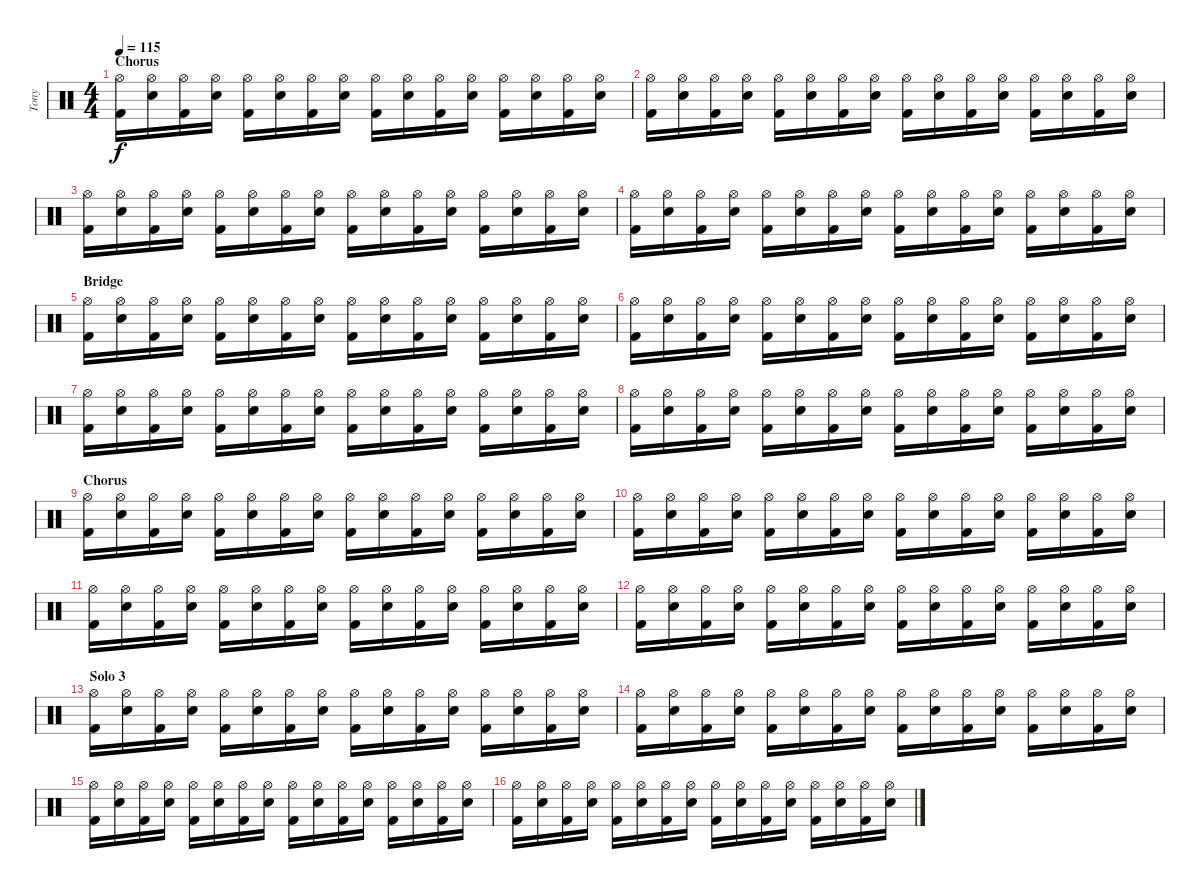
\track ("Tony" "Tony") {instrument percussion}
\staff {score}
\articulation defaults
\ts (4 4)
\section ("" "Chorus")
\tempo 115
\clef neutral
\ks c
("Kick (hit) 2" "Hi-Hat (open)").16{dy f} ("Electric Snare (hit)" "Hi-Hat (open)").16 ("Kick (hit) 2" "Hi-Hat (open)").16 ("Electric Snare (hit)" "Hi-Hat (open)").16 ("Kick (hit) 2" "Hi-Hat (open)").16 ("Electric Snare (hit)" "Hi-Hat (open)").16 ("Kick (hit) 2" "Hi-Hat (open)").16 ("Electric Snare (hit)" "Hi-Hat (open)").16 ("Kick (hit) 2" "Hi-Hat (open)").16 ("Electric Snare (hit)" "Hi-Hat (open)").16 ("Kick (hit) 2" "Hi-Hat (open)").16 ("Electric Snare (hit)" "Hi-Hat (open)").16 ("Kick (hit) 2" "Hi-Hat (open)").16 ("Electric Snare (hit)" "Hi-Hat (open)").16 ("Kick (hit) 2" "Hi-Hat (open)").16 ("Electric Snare (hit)" "Hi-Hat (open)").16 |
("Kick (hit) 2" "Hi-Hat (open)").16 ("Electric Snare (hit)" "Hi-Hat (open)").16 ("Kick (hit) 2" "Hi-Hat (open)").16 ("Electric Snare (hit)" "Hi-Hat (open)").16 ("Kick (hit) 2" "Hi-Hat (open)").16 ("Electric Snare (hit)" "Hi-Hat (open)").16 ("Kick (hit) 2" "Hi-Hat (open)").16 ("Electric Snare (hit)" "Hi-Hat (open)").16 ("Kick (hit) 2" "Hi-Hat (open)").16 ("Electric Snare (hit)" "Hi-Hat (open)").16 ("Kick (hit) 2" "Hi-Hat (open)").16 ("Electric Snare (hit)" "Hi-Hat (open)").16 ("Kick (hit) 2" "Hi-Hat (open)").16 ("Electric Snare (hit)" "Hi-Hat (open)").16 ("Kick (hit) 2" "Hi-Hat (open)").16 ("Electric Snare (hit)" "Hi-Hat (open)").16 |
("Kick (hit) 2" "Hi-Hat (open)").16 ("Electric Snare (hit)" "Hi-Hat (open)").16 ("Kick (hit) 2" "Hi-Hat (open)").16 ("Electric Snare (hit)" "Hi-Hat (open)").16 ("Kick (hit) 2" "Hi-Hat (open)").16 ("Electric Snare (hit)" "Hi-Hat (open)").16 ("Kick (hit) 2" "Hi-Hat (open)").16 ("Electric Snare (hit)" "Hi-Hat (open)").16 ("Kick (hit) 2" "Hi-Hat (open)").16 ("Electric Snare (hit)" "Hi-Hat (open)").16 ("Kick (hit) 2" "Hi-Hat (open)").16 ("Electric Snare (hit)" "Hi-Hat (open)").16 ("Kick (hit) 2" "Hi-Hat (open)").16 ("Electric Snare (hit)" "Hi-Hat (open)").16 ("Kick (hit) 2" "Hi-Hat (open)").16 ("Electric Snare (hit)" "Hi-Hat (open)").16 |
("Kick (hit) 2" "Hi-Hat (open)").16 ("Electric Snare (hit)" "Hi-Hat (open)").16 ("Kick (hit) 2" "Hi-Hat (open)").16 ("Electric Snare (hit)" "Hi-Hat (open)").16 ("Kick (hit) 2" "Hi-Hat (open)").16 ("Electric Snare (hit)" "Hi-Hat (open)").16 ("Kick (hit) 2" "Hi-Hat (open)").16 ("Electric Snare (hit)" "Hi-Hat (open)").16 ("Kick (hit) 2" "Hi-Hat (open)").16 ("Electric Snare (hit)" "Hi-Hat (open)").16 ("Kick (hit) 2" "Hi-Hat (open)").16 ("Electric Snare (hit)" "Hi-Hat (open)").16 ("Kick (hit) 2" "Hi-Hat (open)").16 ("Electric Snare (hit)" "Hi-Hat (open)").16 ("Kick (hit) 2" "Hi-Hat (open)").16 ("Electric Snare (hit)" "Hi-Hat (open)").16 |
\section ("" "Bridge")
("Kick (hit) 2" "Hi-Hat (open)").16 ("Electric Snare (hit)" "Hi-Hat (open)").16 ("Kick (hit) 2" "Hi-Hat (open)").16 ("Electric Snare (hit)" "Hi-Hat (open)").16 ("Kick (hit) 2" "Hi-Hat (open)").16 ("Electric Snare (hit)" "Hi-Hat (open)").16 ("Kick (hit) 2" "Hi-Hat (open)").16 ("Electric Snare (hit)" "Hi-Hat (open)").16 ("Kick (hit) 2" "Hi-Hat (open)").16 ("Electric Snare (hit)" "Hi-Hat (open)").16 ("Kick (hit) 2" "Hi-Hat (open)").16 ("Electric Snare (hit)" "Hi-Hat (open)").16 ("Kick (hit) 2" "Hi-Hat (open)").16 ("Electric Snare (hit)" "Hi-Hat (open)").16 ("Kick (hit) 2" "Hi-Hat (open)").16 ("Electric Snare (hit)" "Hi-Hat (open)").16 |
("Kick (hit) 2" "Hi-Hat (open)").16 ("Electric Snare (hit)" "Hi-Hat (open)").16 ("Kick (hit) 2" "Hi-Hat (open)").16 ("Electric Snare (hit)" "Hi-Hat (open)").16 ("Kick (hit) 2" "Hi-Hat (open)").16 ("Electric Snare (hit)" "Hi-Hat (open)").16 ("Kick (hit) 2" "Hi-Hat (open)").16 ("Electric Snare (hit)" "Hi-Hat (open)").16 ("Kick (hit) 2" "Hi-Hat (open)").16 ("Electric Snare (hit)" "Hi-Hat (open)").16 ("Kick (hit) 2" "Hi-Hat (open)").16 ("Electric Snare (hit)" "Hi-Hat (open)").16 ("Kick (hit) 2" "Hi-Hat (open)").16 ("Electric Snare (hit)" "Hi-Hat (open)").16 ("Kick (hit) 2" "Hi-Hat (open)").16 ("Electric Snare (hit)" "Hi-Hat (open)").16 |
("Kick (hit) 2" "Hi-Hat (open)").16 ("Electric Snare (hit)" "Hi-Hat (open)").16 ("Kick (hit) 2" "Hi-Hat (open)").16 ("Electric Snare (hit)" "Hi-Hat (open)").16 ("Kick (hit) 2" "Hi-Hat (open)").16 ("Electric Snare (hit)" "Hi-Hat (open)").16 ("Kick (hit) 2" "Hi-Hat (open)").16 ("Electric Snare (hit)" "Hi-Hat (open)").16 ("Kick (hit) 2" "Hi-Hat (open)").16 ("Electric Snare (hit)" "Hi-Hat (open)").16 ("Kick (hit) 2" "Hi-Hat (open)").16 ("Electric Snare (hit)" "Hi-Hat (open)").16 ("Kick (hit) 2" "Hi-Hat (open)").16 ("Electric Snare (hit)" "Hi-Hat (open)").16 ("Kick (hit) 2" "Hi-Hat (open)").16 ("Electric Snare (hit)" "Hi-Hat (open)").16 |
("Kick (hit) 2" "Hi-Hat (open)").16 ("Electric Snare (hit)" "Hi-Hat (open)").16 ("Kick (hit) 2" "Hi-Hat (open)").16 ("Electric Snare (hit)" "Hi-Hat (open)").16 ("Kick (hit) 2" "Hi-Hat (open)").16 ("Electric Snare (hit)" "Hi-Hat (open)").16 ("Kick (hit) 2" "Hi-Hat (open)").16 ("Electric Snare (hit)" "Hi-Hat (open)").16 ("Kick (hit) 2" "Hi-Hat (open)").16 ("Electric Snare (hit)" "Hi-Hat (open)").16 ("Kick (hit) 2" "Hi-Hat (open)").16 ("Electric Snare (hit)" "Hi-Hat (open)").16 ("Kick (hit) 2" "Hi-Hat (open)").16 ("Electric Snare (hit)" "Hi-Hat (open)").16 ("Kick (hit) 2" "Hi-Hat (open)").16 ("Electric Snare (hit)" "Hi-Hat (open)").16 |
\section ("" "Chorus")
("Kick (hit) 2" "Hi-Hat (open)").16 ("Electric Snare (hit)" "Hi-Hat (open)").16 ("Kick (hit) 2" "Hi-Hat (open)").16 ("Electric Snare (hit)" "Hi-Hat (open)").16 ("Kick (hit) 2" "Hi-Hat (open)").16 ("Electric Snare (hit)" "Hi-Hat (open)").16 ("Kick (hit) 2" "Hi-Hat (open)").16 ("Electric Snare (hit)" "Hi-Hat (open)").16 ("Kick (hit) 2" "Hi-Hat (open)").16 ("Electric Snare (hit)" "Hi-Hat (open)").16 ("Kick (hit) 2" "Hi-Hat (open)").16 ("Electric Snare (hit)" "Hi-Hat (open)").16 ("Kick (hit) 2" "Hi-Hat (open)").16 ("Electric Snare (hit)" "Hi-Hat (open)").16 ("Kick (hit) 2" "Hi-Hat (open)").16 ("Electric Snare (hit)" "Hi-Hat (open)").16 |
("Kick (hit) 2" "Hi-Hat (open)").16 ("Electric Snare (hit)" "Hi-Hat (open)").16 ("Kick (hit) 2" "Hi-Hat (open)").16 ("Electric Snare (hit)" "Hi-Hat (open)").16 ("Kick (hit) 2" "Hi-Hat (open)").16 ("Electric Snare (hit)" "Hi-Hat (open)").16 ("Kick (hit) 2" "Hi-Hat (open)").16 ("Electric Snare (hit)" "Hi-Hat (open)").16 ("Kick (hit) 2" "Hi-Hat (open)").16 ("Electric Snare (hit)" "Hi-Hat (open)").16 ("Kick (hit) 2" "Hi-Hat (open)").16 ("Electric Snare (hit)" "Hi-Hat (open)").16 ("Kick (hit) 2" "Hi-Hat (open)").16 ("Electric Snare (hit)" "Hi-Hat (open)").16 ("Kick (hit) 2" "Hi-Hat (open)").16 ("Electric Snare (hit)" "Hi-Hat (open)").16 |
("Kick (hit) 2" "Hi-Hat (open)").16 ("Electric Snare (hit)" "Hi-Hat (open)").16 ("Kick (hit) 2" "Hi-Hat (open)").16 ("Electric Snare (hit)" "Hi-Hat (open)").16 ("Kick (hit) 2" "Hi-Hat (open)").16 ("Electric Snare (hit)" "Hi-Hat (open)").16 ("Kick (hit) 2" "Hi-Hat (open)").16 ("Electric Snare (hit)" "Hi-Hat (open)").16 ("Kick (hit) 2" "Hi-Hat (open)").16 ("Electric Snare (hit)" "Hi-Hat (open)").16 ("Kick (hit) 2" "Hi-Hat (open)").16 ("Electric Snare (hit)" "Hi-Hat (open)").16 ("Kick (hit) 2" "Hi-Hat (open)").16 ("Electric Snare (hit)" "Hi-Hat (open)").16 ("Kick (hit) 2" "Hi-Hat (open)").16 ("Electric Snare (hit)" "Hi-Hat (open)").16 |
("Kick (hit) 2" "Hi-Hat (open)").16 ("Electric Snare (hit)" "Hi-Hat (open)").16 ("Kick (hit) 2" "Hi-Hat (open)").16 ("Electric Snare (hit)" "Hi-Hat (open)").16 ("Kick (hit) 2" "Hi-Hat (open)").16 ("Electric Snare (hit)" "Hi-Hat (open)").16 ("Kick (hit) 2" "Hi-Hat (open)").16 ("Electric Snare (hit)" "Hi-Hat (open)").16 ("Kick (hit) 2" "Hi-Hat (open)").16 ("Electric Snare (hit)" "Hi-Hat (open)").16 ("Kick (hit) 2" "Hi-Hat (open)").16 ("Electric Snare (hit)" "Hi-Hat (open)").16 ("Kick (hit) 2" "Hi-Hat (open)").16 ("Electric Snare (hit)" "Hi-Hat (open)").16 ("Kick (hit) 2" "Hi-Hat (open)").16 ("Electric Snare (hit)" "Hi-Hat (open)").16 |
\section ("" "Solo 3")
("Kick (hit) 2" "Hi-Hat (open)").16 ("Electric Snare (hit)" "Hi-Hat (open)").16 ("Kick (hit) 2" "Hi-Hat (open)").16 ("Electric Snare (hit)" "Hi-Hat (open)").16 ("Kick (hit) 2" "Hi-Hat (open)").16 ("Electric Snare (hit)" "Hi-Hat (open)").16 ("Kick (hit) 2" "Hi-Hat (open)").16 ("Electric Snare (hit)" "Hi-Hat (open)").16 ("Kick (hit) 2" "Hi-Hat (open)").16 ("Electric Snare (hit)" "Hi-Hat (open)").16 ("Kick (hit) 2" "Hi-Hat (open)").16 ("Electric Snare (hit)" "Hi-Hat (open)").16 ("Kick (hit) 2" "Hi-Hat (open)").16 ("Electric Snare (hit)" "Hi-Hat (open)").16 ("Kick (hit) 2" "Hi-Hat (open)").16 ("Electric Snare (hit)" "Hi-Hat (open)").16 |
("Kick (hit) 2" "Hi-Hat (open)").16 ("Electric Snare (hit)" "Hi-Hat (open)").16 ("Kick (hit) 2" "Hi-Hat (open)").16 ("Electric Snare (hit)" "Hi-Hat (open)").16 ("Kick (hit) 2" "Hi-Hat (open)").16 ("Electric Snare (hit)" "Hi-Hat (open)").16 ("Kick (hit) 2" "Hi-Hat (open)").16 ("Electric Snare (hit)" "Hi-Hat (open)").16 ("Kick (hit) 2" "Hi-Hat (open)").16 ("Electric Snare (hit)" "Hi-Hat (open)").16 ("Kick (hit) 2" "Hi-Hat (open)").16 ("Electric Snare (hit)" "Hi-Hat (open)").16 ("Kick (hit) 2" "Hi-Hat (open)").16 ("Electric Snare (hit)" "Hi-Hat (open)").16 ("Kick (hit) 2" "Hi-Hat (open)").16 ("Electric Snare (hit)" "Hi-Hat (open)").16 |
("Kick (hit) 2" "Hi-Hat (open)").16 ("Electric Snare (hit)" "Hi-Hat (open)").16 ("Kick (hit) 2" "Hi-Hat (open)").16 ("Electric Snare (hit)" "Hi-Hat (open)").16 ("Kick (hit) 2" "Hi-Hat (open)").16 ("Electric Snare (hit)" "Hi-Hat (open)").16 ("Kick (hit) 2" "Hi-Hat (open)").16 ("Electric Snare (hit)" "Hi-Hat (open)").16 ("Kick (hit) 2" "Hi-Hat (open)").16 ("Electric Snare (hit)" "Hi-Hat (open)").16 ("Kick (hit) 2" "Hi-Hat (open)").16 ("Electric Snare (hit)" "Hi-Hat (open)").16 ("Kick (hit) 2" "Hi-Hat (open)").16 ("Electric Snare (hit)" "Hi-Hat (open)").16 ("Kick (hit) 2" "Hi-Hat (open)").16 ("Electric Snare (hit)" "Hi-Hat (open)").16 |
("Kick (hit) 2" "Hi-Hat (open)").16 ("Electric Snare (hit)" "Hi-Hat (open)").16 ("Kick (hit) 2" "Hi-Hat (open)").16 ("Electric Snare (hit)" "Hi-Hat (open)").16 ("Kick (hit) 2" "Hi-Hat (open)").16 ("Electric Snare (hit)" "Hi-Hat (open)").16 ("Kick (hit) 2" "Hi-Hat (open)").16 ("Electric Snare (hit)" "Hi-Hat (open)").16 ("Kick (hit) 2" "Hi-Hat (open)").16 ("Electric Snare (hit)" "Hi-Hat (open)").16 ("Kick (hit) 2" "Hi-Hat (open)").16 ("Electric Snare (hit)" "Hi-Hat (open)").16 ("Kick (hit) 2" "Hi-Hat (open)").16 ("Electric Snare (hit)" "Hi-Hat (open)").16 ("Kick (hit) 2" "Hi-Hat (open)").16 ("Electric Snare (hit)" "Hi-Hat (open)").16
